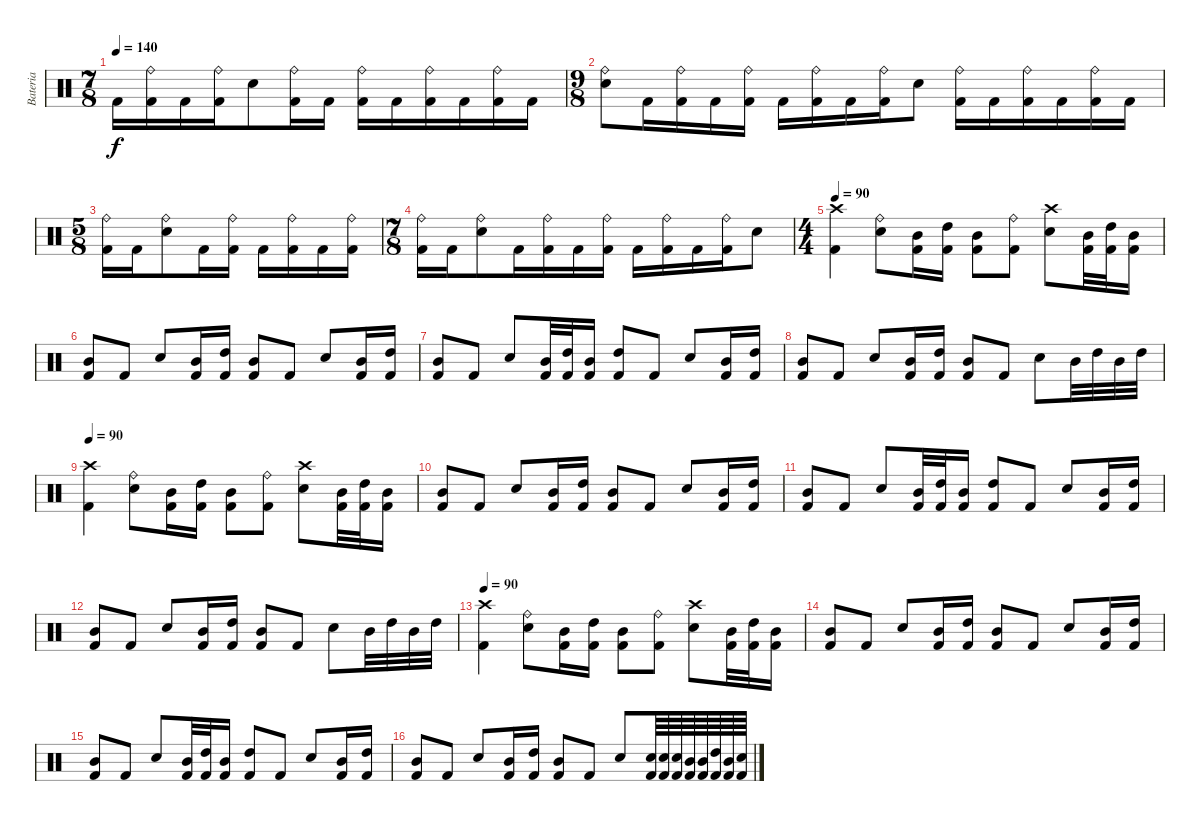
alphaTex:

\track ("Bateria" "Bateria") {instrument percussion}
\staff {score}
\articulation defaults
\ts (7 8)
\tempo 140
\clef neutral
\ks c "Kick (hit) 2".16{dy f}
("Ride (bell)" "Kick (hit) 2").16 "Kick (hit) 2".16 ("Ride (bell)" "Kick (hit) 2").16 "Electric Snare (hit)".8 ("Ride (bell)" "Kick (hit) 2").16 "Kick (hit) 2".16 ("Ride (bell)" "Kick (hit) 2").16 "Kick (hit) 2".16 ("Ride (bell)" "Kick (hit) 2").16 "Kick (hit) 2".16 ("Ride (bell)" "Kick (hit) 2").16 "Kick (hit) 2".16 |
\ts (9 8)
("Ride (bell)" "Electric Snare (hit)").8 "Kick (hit) 2".16 ("Ride (bell)" "Kick (hit) 2").16 "Kick (hit) 2".16 ("Ride (bell)" "Kick (hit) 2").16 "Kick (hit) 2".16 ("Ride (bell)" "Kick (hit) 2").16 "Kick (hit) 2".16 ("Ride (bell)" "Kick (hit) 2").16 "Electric Snare (hit)".8 ("Ride (bell)" "Kick (hit) 2").16 "Kick (hit) 2".16 ("Ride (bell)" "Kick (hit) 2").16 "Kick (hit) 2".16 ("Ride (bell)" "Kick (hit) 2").16 "Kick (hit) 2".16 |
\ts (5 8)
("Ride (bell)" "Kick (hit) 2").16 "Kick (hit) 2".16 ("Ride (bell)" "Electric Snare (hit)").8 "Kick (hit) 2".16 ("Ride (bell)" "Kick (hit) 2").16 "Kick (hit) 2".16 ("Ride (bell)" "Kick (hit) 2").16 "Kick (hit) 2".16 ("Ride (bell)" "Kick (hit) 2").16 |
\ts (7 8)
("Ride (bell)" "Kick (hit) 2").16 "Kick (hit) 2".16 ("Ride (bell)" "Electric Snare (hit)").8 "Kick (hit) 2".16 ("Ride (bell)" "Kick (hit) 2").16 "Kick (hit) 2".16 ("Ride (bell)" "Kick (hit) 2").16 "Kick (hit) 2".16 ("Ride (bell)" "Kick (hit) 2").16 "Kick (hit) 2".16 ("Ride (bell)" "Kick (hit) 2").16 "Electric Snare (hit)".8 |
\ts (4 4)
\tempo 90
("Kick (hit) 2" "Crash high (hit)").4 ("Ride (bell)" "Electric Snare (hit)").8 ("Kick (hit) 2" "Mid Tom (hit)").16 ("Kick (hit) 2" "High Tom (hit)").16 ("Kick (hit) 2" "Mid Tom (hit)").8 ("Ride (bell)" "Kick (hit) 2").8 ("Crash high (hit)" "Electric Snare (hit)").8 ("Kick (hit) 2" "Mid Tom (hit)").32 ("Kick (hit) 2" "High Tom (hit)").32 ("Kick (hit) 2" "Mid Tom (hit)").16 |
("Kick (hit) 2" "Mid Tom (hit)").8 "Kick (hit) 2".8 "Electric Snare (hit)".8 ("Mid Tom (hit)" "Kick (hit) 2").16 ("Kick (hit) 2" "High Tom (hit)").16 ("Kick (hit) 2" "Mid Tom (hit)").8 "Kick (hit) 2".8 "Electric Snare (hit)".8 ("Kick (hit) 2" "Mid Tom (hit)").16 ("Kick (hit) 2" "High Tom (hit)").16 |
("Kick (hit) 2" "Mid Tom (hit)").8 "Kick (hit) 2".8 "Electric Snare (hit)".8 ("Kick (hit) 2" "Mid Tom (hit)").32 ("Kick (hit) 2" "High Tom (hit)").32 ("Kick (hit) 2" "Mid Tom (hit)").16 ("Kick (hit) 2" "High Tom (hit)").8 "Kick (hit) 2".8 "Electric Snare (hit)".8 ("Kick (hit) 2" "Mid Tom (hit)").16 ("Kick (hit) 2" "High Tom (hit)").16 |
("Kick (hit) 2" "Mid Tom (hit)").8 "Kick (hit) 2".8 "Electric Snare (hit)".8 ("Kick (hit) 2" "Mid Tom (hit)").16 ("Kick (hit) 2" "High Tom (hit)").16 ("Kick (hit) 2" "Mid Tom (hit)").8 "Kick (hit) 2".8 "Electric Snare (hit)".8 "Mid Tom (hit)".32 "High Tom (hit)".32 "Mid Tom (hit)".32 "High Tom (hit)".32 |
\tempo 90
("Kick (hit) 2" "Crash high (hit)").4 ("Ride (bell)" "Electric Snare (hit)").8 ("Kick (hit) 2" "Mid Tom (hit)").16 ("Kick (hit) 2" "High Tom (hit)").16 ("Kick (hit) 2" "Mid Tom (hit)").8 ("Ride (bell)" "Kick (hit) 2").8 ("Crash high (hit)" "Electric Snare (hit)").8 ("Kick (hit) 2" "Mid Tom (hit)").32 ("Kick (hit) 2" "High Tom (hit)").32 ("Kick (hit) 2" "Mid Tom (hit)").16 |
("Kick (hit) 2" "Mid Tom (hit)").8 "Kick (hit) 2".8 "Electric Snare (hit)".8 ("Mid Tom (hit)" "Kick (hit) 2").16 ("Kick (hit) 2" "High Tom (hit)").16 ("Kick (hit) 2" "Mid Tom (hit)").8 "Kick (hit) 2".8 "Electric Snare (hit)".8 ("Kick (hit) 2" "Mid Tom (hit)").16 ("Kick (hit) 2" "High Tom (hit)").16 |
("Kick (hit) 2" "Mid Tom (hit)").8 "Kick (hit) 2".8 "Electric Snare (hit)".8 ("Kick (hit) 2" "Mid Tom (hit)").32 ("Kick (hit) 2" "High Tom (hit)").32 ("Kick (hit) 2" "Mid Tom (hit)").16 ("Kick (hit) 2" "High Tom (hit)").8 "Kick (hit) 2".8 "Electric Snare (hit)".8 ("Kick (hit) 2" "Mid Tom (hit)").16 ("Kick (hit) 2" "High Tom (hit)").16 |
("Kick (hit) 2" "Mid Tom (hit)").8 "Kick (hit) 2".8 "Electric Snare (hit)".8 ("Kick (hit) 2" "Mid Tom (hit)").16 ("Kick (hit) 2" "High Tom (hit)").16 ("Kick (hit) 2" "Mid Tom (hit)").8 "Kick (hit) 2".8 "Electric Snare (hit)".8 "Mid Tom (hit)".32 "High Tom (hit)".32 "Mid Tom (hit)".32 "High Tom (hit)".32 |
\tempo 90
("Kick (hit) 2" "Crash high (hit)").4 ("Ride (bell)" "Electric Snare (hit)").8 ("Kick (hit) 2" "Mid Tom (hit)").16 ("Kick (hit) 2" "High Tom (hit)").16 ("Kick (hit) 2" "Mid Tom (hit)").8 ("Ride (bell)" "Kick (hit) 2").8 ("Crash high (hit)" "Electric Snare (hit)").8 ("Kick (hit) 2" "Mid Tom (hit)").32 ("Kick (hit) 2" "High Tom (hit)").32 ("Kick (hit) 2" "Mid Tom (hit)").16 |
("Kick (hit) 2" "Mid Tom (hit)").8 "Kick (hit) 2".8 "Electric Snare (hit)".8 ("Mid Tom (hit)" "Kick (hit) 2").16 ("Kick (hit) 2" "High Tom (hit)").16 ("Kick (hit) 2" "Mid Tom (hit)").8 "Kick (hit) 2".8 "Electric Snare (hit)".8 ("Kick (hit) 2" "Mid Tom (hit)").16 ("Kick (hit) 2" "High Tom (hit)").16 |
("Kick (hit) 2" "Mid Tom (hit)").8 "Kick (hit) 2".8 "Electric Snare (hit)".8 ("Kick (hit) 2" "Mid Tom (hit)").32 ("Kick (hit) 2" "High Tom (hit)").32 ("Kick (hit) 2" "Mid Tom (hit)").16 ("Kick (hit) 2" "High Tom (hit)").8 "Kick (hit) 2".8 "Electric Snare (hit)".8 ("Kick (hit) 2" "Mid Tom (hit)").16 ("Kick (hit) 2" "High Tom (hit)").16 |
("Kick (hit) 2" "Mid Tom (hit)").8 "Kick (hit) 2".8 "Electric Snare (hit)".8 ("Kick (hit) 2" "Mid Tom (hit)").16 ("Kick (hit) 2" "High Tom (hit)").16 ("Kick (hit) 2" "Mid Tom (hit)").8 "Kick (hit) 2".8 "Electric Snare (hit)".8 ("Kick (hit) 2" "Electric Snare (hit)").64 ("Kick (hit) 2" "Electric Snare (hit)").64 ("Kick (hit) 2" "Electric Snare (hit)").64 ("Kick (hit) 2" "Mid Tom (hit)").64 ("Kick (hit) 2" "Mid Tom (hit)").64 ("Kick (hit) 2" "High Tom (hit)").64 ("Kick (hit) 2" "Mid Tom (hit)").64 ("Kick (hit) 2" "Electric Snare (hit)").64
